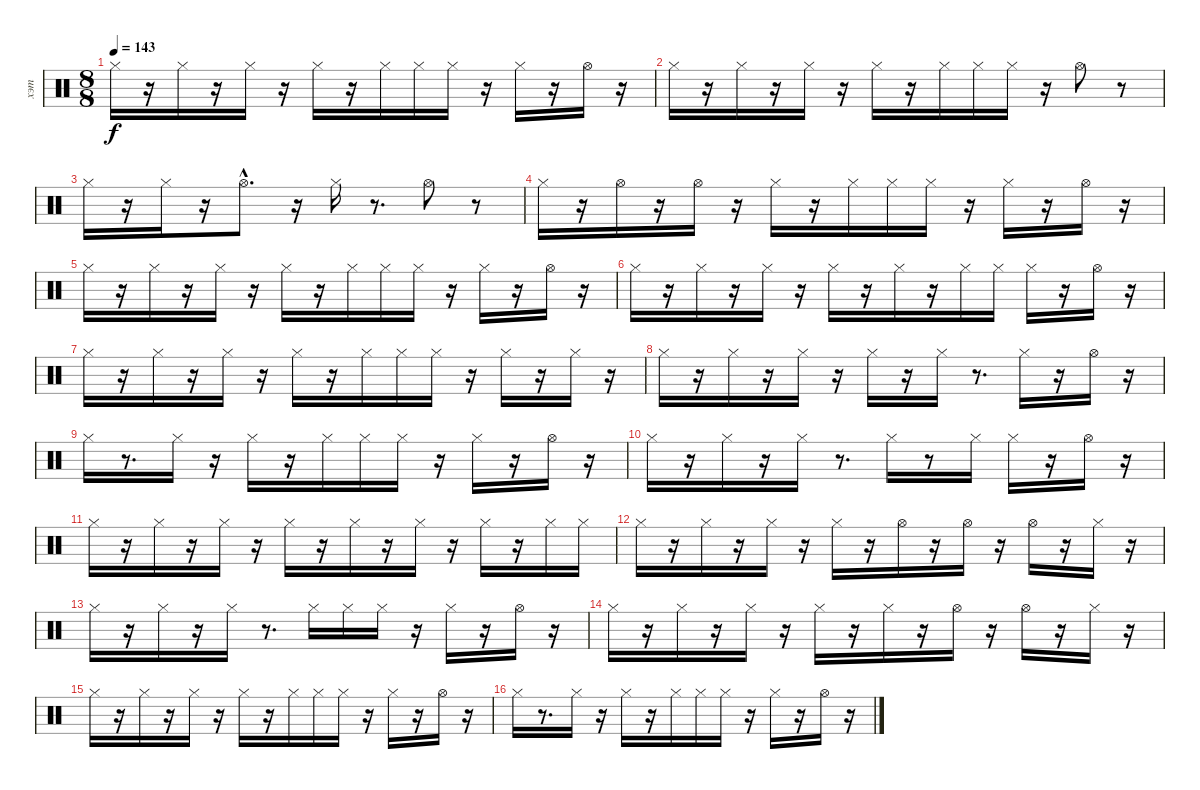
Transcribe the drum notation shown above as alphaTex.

\track ("хэт" "хэт") {instrument percussion}
\staff {score}
\articulation defaults
\ts (8 8)
\tempo 143
\clef neutral
\ks c "Hi-Hat (closed)".16{dy f}
r.16 "Hi-Hat (closed)".16 r.16 "Hi-Hat (closed)".16 r.16 "Hi-Hat (closed)".16 r.16 "Hi-Hat (closed)".16 "Hi-Hat (closed)".16 "Hi-Hat (closed)".16 r.16 "Hi-Hat (closed)".16 r.16 "Hi-Hat (open)".16 r.16 |
"Hi-Hat (closed)".16 r.16 "Hi-Hat (closed)".16 r.16 "Hi-Hat (closed)".16 r.16 "Hi-Hat (closed)".16 r.16 "Hi-Hat (closed)".16 "Hi-Hat (closed)".16 "Hi-Hat (closed)".16 r.16 "Hi-Hat (open)".8 r.8 |
"Hi-Hat (closed)".16 r.16 "Hi-Hat (closed)".16 r.16 "Hi-Hat (open)"{hac}.8{d} r.16 "Hi-Hat (closed)".16 r.8{d} "Hi-Hat (open)".8 r.8 |
"Hi-Hat (closed)".16 r.16 "Hi-Hat (open)".16 r.16 "Hi-Hat (open)".16 r.16 "Hi-Hat (closed)".16 r.16 "Hi-Hat (closed)".16 "Hi-Hat (closed)".16 "Hi-Hat (closed)".16 r.16 "Hi-Hat (closed)".16 r.16 "Hi-Hat (open)".16 r.16 |
"Hi-Hat (closed)".16 r.16 "Hi-Hat (closed)".16 r.16 "Hi-Hat (closed)".16 r.16 "Hi-Hat (closed)".16 r.16 "Hi-Hat (closed)".16 "Hi-Hat (closed)".16 "Hi-Hat (closed)".16 r.16 "Hi-Hat (closed)".16 r.16 "Hi-Hat (open)".16 r.16 |
"Hi-Hat (closed)".16 r.16 "Hi-Hat (closed)".16 r.16 "Hi-Hat (closed)".16 r.16 "Hi-Hat (closed)".16 r.16 "Hi-Hat (closed)".16 r.16 "Hi-Hat (closed)".16 "Hi-Hat (closed)".16 "Hi-Hat (closed)".16 r.16 "Hi-Hat (open)".16 r.16 |
"Hi-Hat (closed)".16 r.16 "Hi-Hat (closed)".16 r.16 "Hi-Hat (closed)".16 r.16 "Hi-Hat (closed)".16 r.16 "Hi-Hat (closed)".16 "Hi-Hat (closed)".16 "Hi-Hat (closed)".16 r.16 "Hi-Hat (closed)".16 r.16 "Hi-Hat (closed)".16 r.16 |
"Hi-Hat (closed)".16 r.16 "Hi-Hat (closed)".16 r.16 "Hi-Hat (closed)".16 r.16 "Hi-Hat (closed)".16 r.16 "Hi-Hat (closed)".16 r.8{d} "Hi-Hat (closed)".16 r.16 "Hi-Hat (open)".16 r.16 |
"Hi-Hat (closed)".16 r.8{d} "Hi-Hat (closed)".16 r.16 "Hi-Hat (closed)".16 r.16 "Hi-Hat (closed)".16 "Hi-Hat (closed)".16 "Hi-Hat (closed)".16 r.16 "Hi-Hat (closed)".16 r.16 "Hi-Hat (open)".16 r.16 |
"Hi-Hat (closed)".16 r.16 "Hi-Hat (closed)".16 r.16 "Hi-Hat (closed)".16 r.8{d} "Hi-Hat (closed)".16 r.8 "Hi-Hat (closed)".16 "Hi-Hat (closed)".16 r.16 "Hi-Hat (open)".16 r.16 |
"Hi-Hat (closed)".16 r.16 "Hi-Hat (closed)".16 r.16 "Hi-Hat (closed)".16 r.16 "Hi-Hat (closed)".16 r.16 "Hi-Hat (closed)".16 r.16 "Hi-Hat (closed)".16 r.16 "Hi-Hat (closed)".16 r.16 "Hi-Hat (closed)".16 "Hi-Hat (closed)".16 |
"Hi-Hat (closed)".16 r.16 "Hi-Hat (closed)".16 r.16 "Hi-Hat (closed)".16 r.16 "Hi-Hat (closed)".16 r.16 "Hi-Hat (open)".16 r.16 "Hi-Hat (open)".16 r.16 "Hi-Hat (open)".16 r.16 "Hi-Hat (closed)".16 r.16 |
"Hi-Hat (closed)".16 r.16 "Hi-Hat (closed)".16 r.16 "Hi-Hat (closed)".16 r.8{d} "Hi-Hat (closed)".16 "Hi-Hat (closed)".16 "Hi-Hat (closed)".16 r.16 "Hi-Hat (closed)".16 r.16 "Hi-Hat (open)".16 r.16 |
"Hi-Hat (closed)".16 r.16 "Hi-Hat (closed)".16 r.16 "Hi-Hat (closed)".16 r.16 "Hi-Hat (closed)".16 r.16 "Hi-Hat (closed)".16 r.16 "Hi-Hat (open)".16 r.16 "Hi-Hat (open)".16 r.16 "Hi-Hat (closed)".16 r.16 |
"Hi-Hat (closed)".16 r.16 "Hi-Hat (closed)".16 r.16 "Hi-Hat (closed)".16 r.16 "Hi-Hat (closed)".16 r.16 "Hi-Hat (closed)".16 "Hi-Hat (closed)".16 "Hi-Hat (closed)".16 r.16 "Hi-Hat (closed)".16 r.16 "Hi-Hat (open)".16 r.16 |
"Hi-Hat (closed)".16 r.8{d} "Hi-Hat (closed)".16 r.16 "Hi-Hat (closed)".16 r.16 "Hi-Hat (closed)".16 "Hi-Hat (closed)".16 "Hi-Hat (closed)".16 r.16 "Hi-Hat (closed)".16 r.16 "Hi-Hat (open)".16 r.16
